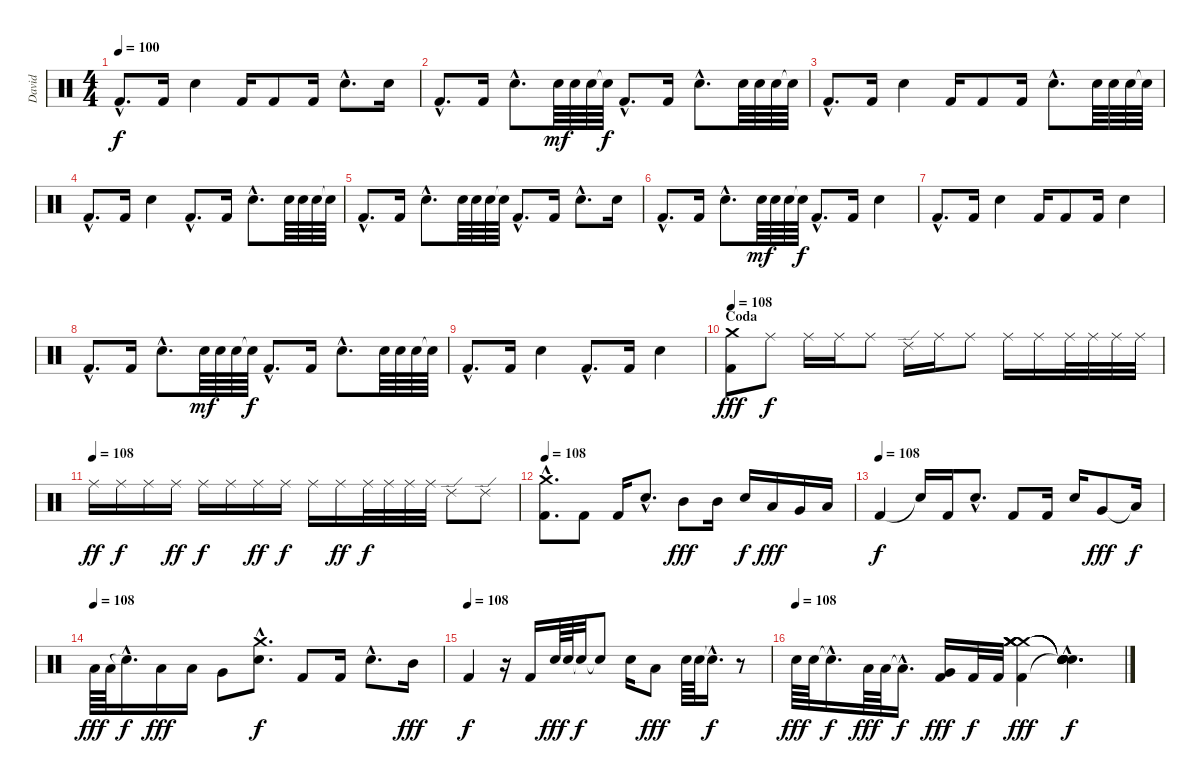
\track ("David" "David") {instrument percussion}
\staff {score}
\articulation defaults
\ts (4 4)
\tempo 100
\clef neutral
\ks c "Kick (hit) 2"{hac}.8{d dy f} "Kick (hit) 2".16 "Snare (hit) 2".4 "Kick (hit) 2".16 "Kick (hit) 2".8 "Kick (hit) 2".16 "Snare (hit) 2"{hac}.8{d} "Snare (hit) 2".16
|
"Kick (hit) 2"{hac}.8{d} "Kick (hit) 2".16 "Snare (hit) 2"{hac}.8{d} "Snare (hit) 2".64{dy mf} "Snare (hit) 2".64 "Snare (hit) 2".64 "Snare (hit)"{t}.64{dy f} "Kick (hit) 2"{hac}.8{d} "Kick (hit) 2".16 "Snare (hit) 2"{hac}.8{d} "Snare (hit) 2".64 "Snare (hit) 2".64 "Snare (hit) 2".64 "Snare (hit)"{t}.64 |
"Kick (hit) 2"{hac}.8{d} "Kick (hit) 2".16 "Snare (hit) 2".4 "Kick (hit) 2".16 "Kick (hit) 2".8 "Kick (hit) 2".16 "Snare (hit) 2"{hac}.8{d} "Snare (hit) 2".64 "Snare (hit) 2".64 "Snare (hit) 2".64 "Snare (hit)"{t}.64 |
"Kick (hit) 2"{hac}.8{d} "Kick (hit) 2".16 "Snare (hit) 2".4 "Kick (hit) 2"{hac}.8{d} "Kick (hit) 2".16 "Snare (hit) 2"{hac}.8{d} "Snare (hit) 2".64 "Snare (hit) 2".64 "Snare (hit) 2".64 "Snare (hit)"{t}.64 |
"Kick (hit) 2"{hac}.8{d} "Kick (hit) 2".16 "Snare (hit) 2"{hac}.8{d} "Snare (hit) 2".64 "Snare (hit) 2".64 "Snare (hit) 2".64 "Snare (hit)"{t}.64 "Kick (hit) 2"{hac}.8{d} "Kick (hit) 2".16 "Snare (hit) 2"{hac}.8{d} "Snare (hit) 2".16 |
"Kick (hit) 2"{hac}.8{d} "Kick (hit) 2".16 "Snare (hit) 2"{hac}.8{d} "Snare (hit) 2".64{dy mf} "Snare (hit) 2".64 "Snare (hit) 2".64 "Snare (hit)"{t}.64{dy f} "Kick (hit) 2"{hac}.8{d} "Kick (hit) 2".16 "Snare (hit) 2".4 |
"Kick (hit) 2"{hac}.8{d} "Kick (hit) 2".16 "Snare (hit) 2".4 "Kick (hit) 2".16 "Kick (hit) 2".8 "Kick (hit) 2".16 "Snare (hit) 2".4 |
"Kick (hit) 2"{hac}.8{d} "Kick (hit) 2".16 "Snare (hit) 2"{hac}.8{d} "Snare (hit) 2".64{dy mf} "Snare (hit) 2".64 "Snare (hit) 2".64 "Snare (hit)"{t}.64{dy f} "Kick (hit) 2"{hac}.8{d} "Kick (hit) 2".16 "Snare (hit) 2"{hac}.8{d} "Snare (hit) 2".64 "Snare (hit) 2".64 "Snare (hit) 2".64 "Snare (hit)"{t}.64 |
"Kick (hit) 2"{hac}.8{d} "Kick (hit) 2".16 "Snare (hit) 2".4 "Kick (hit) 2"{hac}.8{d} "Kick (hit) 2".16 "Snare (hit) 2".4 |
\section ("" "Coda")
\tempo 108
("Kick (hit) 2" "Crash medium (hit)").8{dy fff} "Ride (middle)".8{dy f} "Ride (middle)".16 "Ride (middle)".16 "Ride (middle)".8 "Ride (edge) 2".16 "Ride (middle)".16 "Ride (middle)".8 "Ride (middle)".16 "Ride (middle)".16 "Ride (middle)".32 "Ride (middle)".32 "Ride (middle)".32 "Ride (middle)".32 |
\tempo (108)
"Ride (middle)".16{dy ff} "Ride (middle)".16{dy f} "Ride (middle)".16 "Ride (middle)".16{dy ff} "Ride (middle)".16{dy f} "Ride (middle)".16 "Ride (middle)".16{dy ff} "Ride (middle)".16{dy f} "Ride (middle)".16 "Ride (middle)".16{dy ff} "Ride (middle)".32{dy f} "Ride (middle)".32 "Ride (middle)".32 "Ride (middle)".32 "Ride (edge) 2".8 "Ride (edge) 2".8 |
\tempo 108
("Crash medium (hit)"{hac} "Kick (hit) 2"{hac}).8{d} "Kick (hit) 2".8 "Kick (hit) 2".16 "Snare (hit) 2"{hac}.8{d} "Mid Tom (hit)".8{dy fff} "Mid Tom (hit)".16 "Snare (hit) 2".16{dy f} "Low Tom (hit)".16{dy fff} "Very Low Tom (hit)".16 "Low Floor Tom (hit)".16 |
\tempo (108)
"Kick (hit) 2".4{dy f} "Snare (hit)"{t}.16 "Kick (hit) 2".16 "Snare (hit) 2"{hac}.8{d} "Kick (hit) 2".8 "Kick (hit) 2".16 "Snare (hit) 2".16 "Very Low Tom (hit)".8{dy fff} "Low Floor Tom (hit)"{t}.16{dy f} |
\tempo (108)
"Low Floor Tom (hit)".64{dy fff} "Low Floor Tom (hit)".64 "Snare (hit)"{hac t}.16{d dy f} "Low Tom (hit)".16{dy fff} "Low Tom (hit)".16 "Very Low Tom (hit)".8 ("Crash medium (hit)"{hac} "Snare (hit) 2"{hac}).8{d dy f} "Kick (hit) 2".8 "Kick (hit) 2".16 "Snare (hit) 2"{hac}.8{d} "Mid Tom (hit)".16{dy fff} |
\tempo (108)
"Kick (hit) 2".4{dy f} r.16 "Kick (hit) 2".16 "Snare (hit) 2".64{dy fff} "Snare (hit) 2".64 "Snare (hit)"{t}.32{dy f} "Snare (hit) 2"{t}.8 "Snare (hit) 2".16 "Low Tom (hit)".8{dy fff} "Snare (hit) 2".64 "Snare (hit) 2".64 "Snare (hit)"{hac t}.16{d dy f} r.8 |
\tempo (108)
"Snare (hit) 2".64{dy fff} "Snare (hit) 2".64 "Snare (hit) 2"{hac t}.16{d dy f} "Low Tom (hit)".64{dy fff} "Low Tom (hit)".64 "Low Tom (hit)"{hac t}.16{d dy f} ("Very Low Tom (hit)" "Kick (hit) 2").16{dy fff} "Kick (hit) 2".32{dy f} "Kick (hit) 2".32 ("Crash medium (hit)" "Crash medium (hit)" "Kick (hit) 2" "Crash medium (hit)" "Crash medium (hit)" "Crash medium (hit)").4{dy fff} ("Snare (hit)"{hac t} "Snare (hit)"{hac t} "Snare (hit)"{hac t} "Snare (hit)"{hac t} "Snare (hit)"{hac t} "Snare (hit)"{hac t}).4{d dy f}
